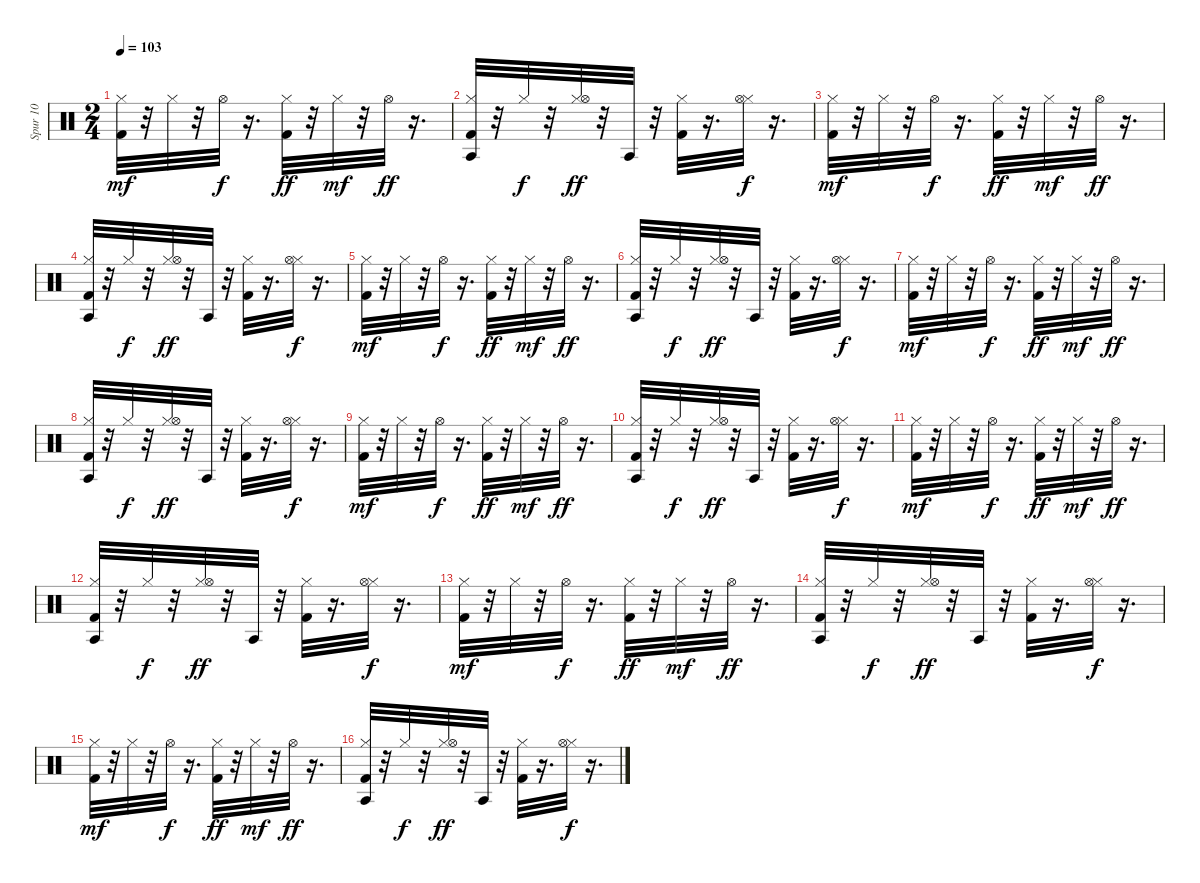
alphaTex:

\track ("Spur 10" "Spur 10") {instrument percussion}
\staff {score}
\articulation defaults
\ts (2 4)
\tempo 103
\clef neutral
\ks c
("Kick (hit) 2" "Hi-Hat (closed)").32{dy mf} r.32 "Hi-Hat (closed)".32 r.32 "Hi-Hat (open)".32{dy f} r.16{d} ("Kick (hit) 2" "Hi-Hat (closed)").32{dy ff} r.32 "Hi-Hat (closed)".32{dy mf} r.32 "Hi-Hat (open)".32{dy ff} r.16{d} |
("Kick (hit) 2" "Hi-Hat (closed)" "Agogo tow (hit)").32 r.32 "Hi-Hat (closed)".32{dy f} r.32 ("Hi-Hat (closed)" "Hi-Hat (open)").32{dy ff} r.32 "Agogo tow (hit)".32 r.32 ("Kick (hit) 2" "Hi-Hat (closed)").32 r.16{d} ("Hi-Hat (closed)" "Hi-Hat (open)").32{dy f} r.16{d} |
("Kick (hit) 2" "Hi-Hat (closed)").32{dy mf} r.32 "Hi-Hat (closed)".32 r.32 "Hi-Hat (open)".32{dy f} r.16{d} ("Kick (hit) 2" "Hi-Hat (closed)").32{dy ff} r.32 "Hi-Hat (closed)".32{dy mf} r.32 "Hi-Hat (open)".32{dy ff} r.16{d} |
("Kick (hit) 2" "Hi-Hat (closed)" "Agogo tow (hit)").32 r.32 "Hi-Hat (closed)".32{dy f} r.32 ("Hi-Hat (closed)" "Hi-Hat (open)").32{dy ff} r.32 "Agogo tow (hit)".32 r.32 ("Kick (hit) 2" "Hi-Hat (closed)").32 r.16{d} ("Hi-Hat (closed)" "Hi-Hat (open)").32{dy f} r.16{d} |
("Kick (hit) 2" "Hi-Hat (closed)").32{dy mf} r.32 "Hi-Hat (closed)".32 r.32 "Hi-Hat (open)".32{dy f} r.16{d} ("Kick (hit) 2" "Hi-Hat (closed)").32{dy ff} r.32 "Hi-Hat (closed)".32{dy mf} r.32 "Hi-Hat (open)".32{dy ff} r.16{d} |
("Kick (hit) 2" "Hi-Hat (closed)" "Agogo tow (hit)").32 r.32 "Hi-Hat (closed)".32{dy f} r.32 ("Hi-Hat (closed)" "Hi-Hat (open)").32{dy ff} r.32 "Agogo tow (hit)".32 r.32 ("Kick (hit) 2" "Hi-Hat (closed)").32 r.16{d} ("Hi-Hat (closed)" "Hi-Hat (open)").32{dy f} r.16{d} |
("Kick (hit) 2" "Hi-Hat (closed)").32{dy mf} r.32 "Hi-Hat (closed)".32 r.32 "Hi-Hat (open)".32{dy f} r.16{d} ("Kick (hit) 2" "Hi-Hat (closed)").32{dy ff} r.32 "Hi-Hat (closed)".32{dy mf} r.32 "Hi-Hat (open)".32{dy ff} r.16{d} |
("Kick (hit) 2" "Hi-Hat (closed)" "Agogo tow (hit)").32 r.32 "Hi-Hat (closed)".32{dy f} r.32 ("Hi-Hat (closed)" "Hi-Hat (open)").32{dy ff} r.32 "Agogo tow (hit)".32 r.32 ("Kick (hit) 2" "Hi-Hat (closed)").32 r.16{d} ("Hi-Hat (closed)" "Hi-Hat (open)").32{dy f} r.16{d} |
("Kick (hit) 2" "Hi-Hat (closed)").32{dy mf} r.32 "Hi-Hat (closed)".32 r.32 "Hi-Hat (open)".32{dy f} r.16{d} ("Kick (hit) 2" "Hi-Hat (closed)").32{dy ff} r.32 "Hi-Hat (closed)".32{dy mf} r.32 "Hi-Hat (open)".32{dy ff} r.16{d} |
("Kick (hit) 2" "Hi-Hat (closed)" "Agogo tow (hit)").32 r.32 "Hi-Hat (closed)".32{dy f} r.32 ("Hi-Hat (closed)" "Hi-Hat (open)").32{dy ff} r.32 "Agogo tow (hit)".32 r.32 ("Kick (hit) 2" "Hi-Hat (closed)").32 r.16{d} ("Hi-Hat (closed)" "Hi-Hat (open)").32{dy f} r.16{d} |
("Kick (hit) 2" "Hi-Hat (closed)").32{dy mf} r.32 "Hi-Hat (closed)".32 r.32 "Hi-Hat (open)".32{dy f} r.16{d} ("Kick (hit) 2" "Hi-Hat (closed)").32{dy ff} r.32 "Hi-Hat (closed)".32{dy mf} r.32 "Hi-Hat (open)".32{dy ff} r.16{d} |
("Kick (hit) 2" "Hi-Hat (closed)" "Agogo tow (hit)").32 r.32 "Hi-Hat (closed)".32{dy f} r.32 ("Hi-Hat (closed)" "Hi-Hat (open)").32{dy ff} r.32 "Agogo tow (hit)".32 r.32 ("Kick (hit) 2" "Hi-Hat (closed)").32 r.16{d} ("Hi-Hat (closed)" "Hi-Hat (open)").32{dy f} r.16{d} |
("Kick (hit) 2" "Hi-Hat (closed)").32{dy mf} r.32 "Hi-Hat (closed)".32 r.32 "Hi-Hat (open)".32{dy f} r.16{d} ("Kick (hit) 2" "Hi-Hat (closed)").32{dy ff} r.32 "Hi-Hat (closed)".32{dy mf} r.32 "Hi-Hat (open)".32{dy ff} r.16{d} |
("Kick (hit) 2" "Hi-Hat (closed)" "Agogo tow (hit)").32 r.32 "Hi-Hat (closed)".32{dy f} r.32 ("Hi-Hat (closed)" "Hi-Hat (open)").32{dy ff} r.32 "Agogo tow (hit)".32 r.32 ("Kick (hit) 2" "Hi-Hat (closed)").32 r.16{d} ("Hi-Hat (closed)" "Hi-Hat (open)").32{dy f} r.16{d} |
("Kick (hit) 2" "Hi-Hat (closed)").32{dy mf} r.32 "Hi-Hat (closed)".32 r.32 "Hi-Hat (open)".32{dy f} r.16{d} ("Kick (hit) 2" "Hi-Hat (closed)").32{dy ff} r.32 "Hi-Hat (closed)".32{dy mf} r.32 "Hi-Hat (open)".32{dy ff} r.16{d} |
("Kick (hit) 2" "Hi-Hat (closed)" "Agogo tow (hit)").32 r.32 "Hi-Hat (closed)".32{dy f} r.32 ("Hi-Hat (closed)" "Hi-Hat (open)").32{dy ff} r.32 "Agogo tow (hit)".32 r.32 ("Kick (hit) 2" "Hi-Hat (closed)").32 r.16{d} ("Hi-Hat (closed)" "Hi-Hat (open)").32{dy f} r.16{d}
